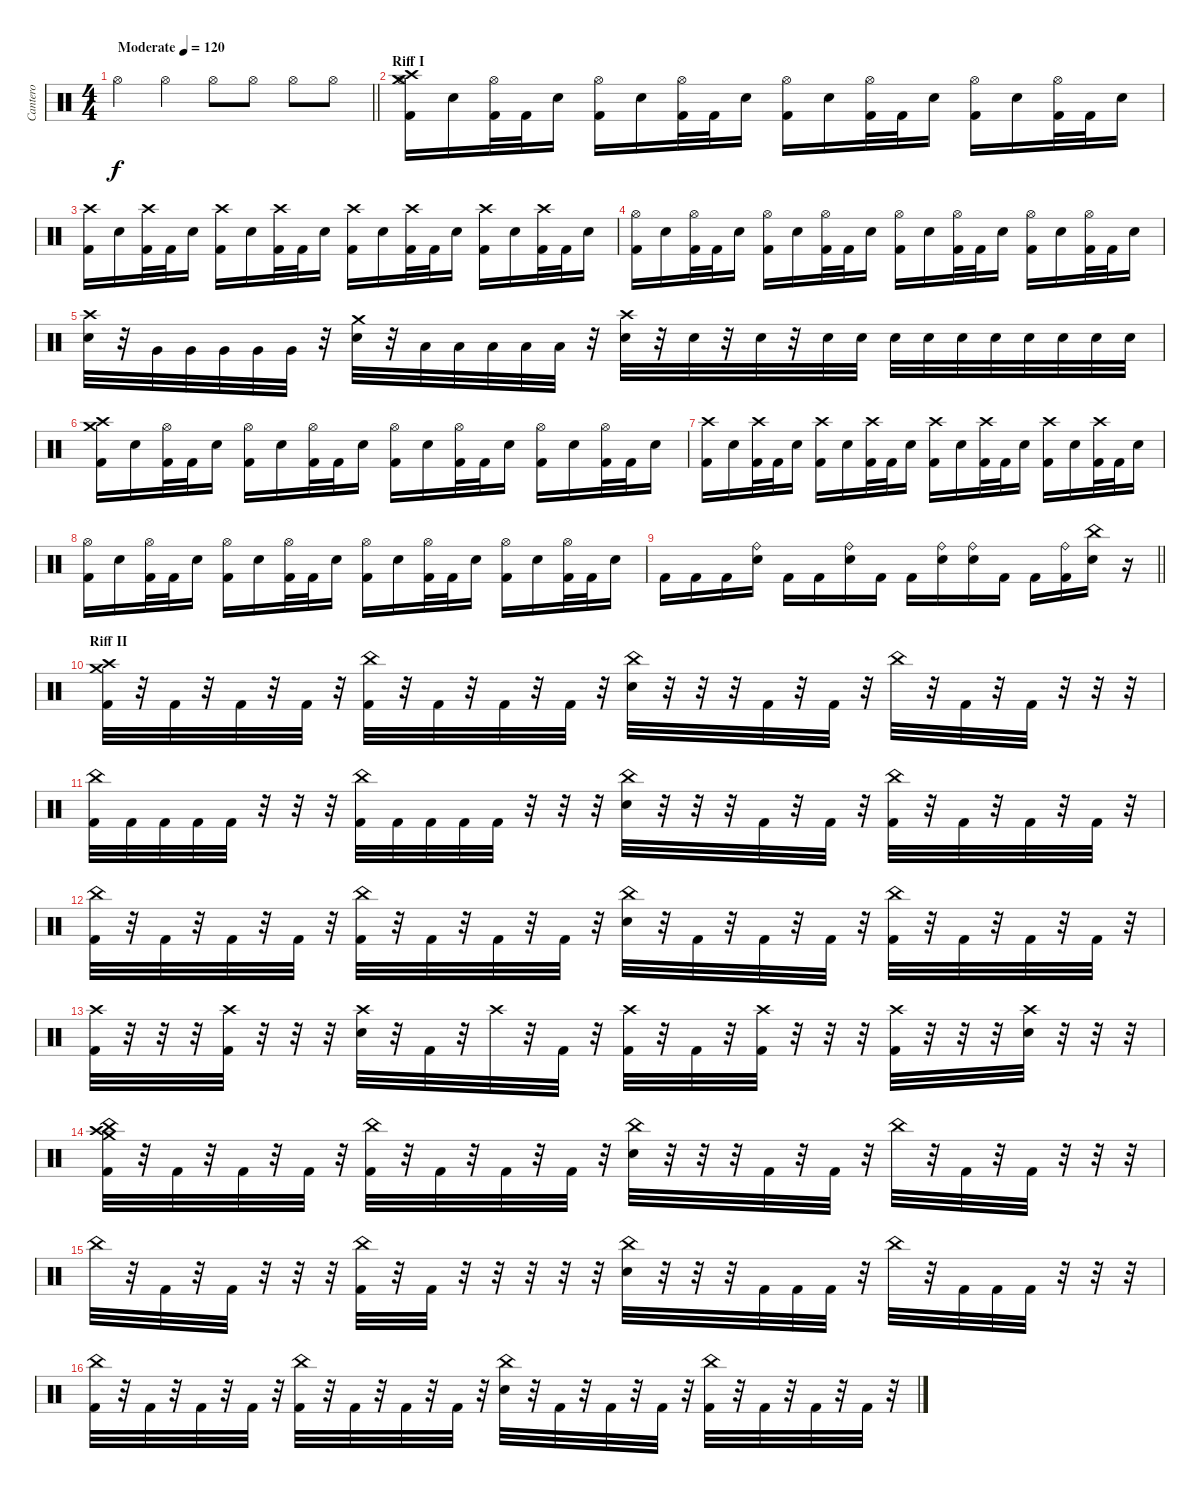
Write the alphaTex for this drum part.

\track ("Cantero" "Cantero") {instrument percussion}
\staff {score}
\articulation defaults
\ts (4 4)
\tempo (120 "Moderate")
\clef neutral
\barLineRight lightlight
\ks c "Hi-Hat (open)".4{dy f} "Hi-Hat (open)".4 "Hi-Hat (open)".8 "Hi-Hat (open)".8 "Hi-Hat (open)".8 "Hi-Hat (open)".8
|
\section ("" "Riff I")
("Kick (hit) 2" "Crash high (hit)" "Crash medium (hit)" "Hi-Hat (open)").16 "Electric Snare (hit)".16 ("Kick (hit) 2" "Hi-Hat (open)").32 "Kick (hit) 2".32 "Electric Snare (hit)".16 ("Kick (hit) 2" "Hi-Hat (open)").16 "Electric Snare (hit)".16 ("Kick (hit) 2" "Hi-Hat (open)").32 "Kick (hit) 2".32 "Electric Snare (hit)".16 ("Kick (hit) 2" "Hi-Hat (open)").16 "Electric Snare (hit)".16 ("Kick (hit) 2" "Hi-Hat (open)").32 "Kick (hit) 2".32 "Electric Snare (hit)".16 ("Kick (hit) 2" "Hi-Hat (open)").16 "Electric Snare (hit)".16 ("Kick (hit) 2" "Hi-Hat (open)").32 "Kick (hit) 2".32 "Electric Snare (hit)".16 |
("Kick (hit) 2" "Crash high (hit)").16 "Electric Snare (hit)".16 ("Kick (hit) 2" "Crash high (hit)").32 "Kick (hit) 2".32 "Electric Snare (hit)".16 ("Kick (hit) 2" "Crash high (hit)").16 "Electric Snare (hit)".16 ("Kick (hit) 2" "Crash high (hit)").32 "Kick (hit) 2".32 "Electric Snare (hit)".16 ("Kick (hit) 2" "Crash high (hit)").16 "Electric Snare (hit)".16 ("Kick (hit) 2" "Crash high (hit)").32 "Kick (hit) 2".32 "Electric Snare (hit)".16 ("Kick (hit) 2" "Crash high (hit)").16 "Electric Snare (hit)".16 ("Kick (hit) 2" "Crash high (hit)").32 "Kick (hit) 2".32 "Electric Snare (hit)".16 |
("Kick (hit) 2" "Hi-Hat (open)").16 "Electric Snare (hit)".16 ("Kick (hit) 2" "Hi-Hat (open)").32 "Kick (hit) 2".32 "Electric Snare (hit)".16 ("Kick (hit) 2" "Hi-Hat (open)").16 "Electric Snare (hit)".16 ("Kick (hit) 2" "Hi-Hat (open)").32 "Kick (hit) 2".32 "Electric Snare (hit)".16 ("Kick (hit) 2" "Hi-Hat (open)").16 "Electric Snare (hit)".16 ("Kick (hit) 2" "Hi-Hat (open)").32 "Kick (hit) 2".32 "Electric Snare (hit)".16 ("Kick (hit) 2" "Hi-Hat (open)").16 "Electric Snare (hit)".16 ("Kick (hit) 2" "Hi-Hat (open)").32 "Kick (hit) 2".32 "Electric Snare (hit)".16 |
("Crash high (hit)" "Electric Snare (hit)").32 r.32 "Very Low Tom (hit)".32 "Very Low Tom (hit)".32 "Very Low Tom (hit)".32 "Very Low Tom (hit)".32 "Very Low Tom (hit)".32 r.32 ("Crash medium (hit)" "Electric Snare (hit)").32 r.32 "Low Floor Tom (hit)".32 "Low Floor Tom (hit)".32 "Low Floor Tom (hit)".32 "Low Floor Tom (hit)".32 "Low Floor Tom (hit)".32 r.32 ("Crash high (hit)" "Electric Snare (hit)").32 r.32 "Electric Snare (hit)".32 r.32 "Electric Snare (hit)".32 r.32 "Electric Snare (hit)".32 "Electric Snare (hit)".32 "Electric Snare (hit)".32 "Electric Snare (hit)".32 "Electric Snare (hit)".32 "Electric Snare (hit)".32 "Electric Snare (hit)".32 "Electric Snare (hit)".32 "Electric Snare (hit)".32 "Electric Snare (hit)".32 |
("Kick (hit) 2" "Crash high (hit)" "Crash medium (hit)").16 "Electric Snare (hit)".16 ("Kick (hit) 2" "Hi-Hat (open)").32 "Kick (hit) 2".32 "Electric Snare (hit)".16 ("Kick (hit) 2" "Hi-Hat (open)").16 "Electric Snare (hit)".16 ("Kick (hit) 2" "Hi-Hat (open)").32 "Kick (hit) 2".32 "Electric Snare (hit)".16 ("Kick (hit) 2" "Hi-Hat (open)").16 "Electric Snare (hit)".16 ("Kick (hit) 2" "Hi-Hat (open)").32 "Kick (hit) 2".32 "Electric Snare (hit)".16 ("Kick (hit) 2" "Hi-Hat (open)").16 "Electric Snare (hit)".16 ("Kick (hit) 2" "Hi-Hat (open)").32 "Kick (hit) 2".32 "Electric Snare (hit)".16 |
("Kick (hit) 2" "Crash high (hit)").16 "Electric Snare (hit)".16 ("Kick (hit) 2" "Crash high (hit)").32 "Kick (hit) 2".32 "Electric Snare (hit)".16 ("Kick (hit) 2" "Crash high (hit)").16 "Electric Snare (hit)".16 ("Kick (hit) 2" "Crash high (hit)").32 "Kick (hit) 2".32 "Electric Snare (hit)".16 ("Kick (hit) 2" "Crash high (hit)").16 "Electric Snare (hit)".16 ("Kick (hit) 2" "Crash high (hit)").32 "Kick (hit) 2".32 "Electric Snare (hit)".16 ("Kick (hit) 2" "Crash high (hit)").16 "Electric Snare (hit)".16 ("Kick (hit) 2" "Crash high (hit)").32 "Kick (hit) 2".32 "Electric Snare (hit)".16 |
("Kick (hit) 2" "Hi-Hat (open)").16 "Electric Snare (hit)".16 ("Kick (hit) 2" "Hi-Hat (open)").32 "Kick (hit) 2".32 "Electric Snare (hit)".16 ("Kick (hit) 2" "Hi-Hat (open)").16 "Electric Snare (hit)".16 ("Kick (hit) 2" "Hi-Hat (open)").32 "Kick (hit) 2".32 "Electric Snare (hit)".16 ("Kick (hit) 2" "Hi-Hat (open)").16 "Electric Snare (hit)".16 ("Kick (hit) 2" "Hi-Hat (open)").32 "Kick (hit) 2".32 "Electric Snare (hit)".16 ("Kick (hit) 2" "Hi-Hat (open)").16 "Electric Snare (hit)".16 ("Kick (hit) 2" "Hi-Hat (open)").32 "Kick (hit) 2".32 "Electric Snare (hit)".16 |
\barLineRight lightlight "Kick (hit) 2".16 "Kick (hit) 2".16 "Kick (hit) 2".16
("Electric Snare (hit)" "Ride (bell)").16 "Kick (hit) 2".16 "Kick (hit) 2".16 ("Electric Snare (hit)" "Ride (bell)").16 "Kick (hit) 2".16 "Kick (hit) 2".16 ("Electric Snare (hit)" "Ride (bell)").16 ("Electric Snare (hit)" "Ride (bell)").16 "Kick (hit) 2".16 "Kick (hit) 2".16 ("Kick (hit) 2" "Ride (bell)").16 ("Electric Snare (hit)" "China (hit)").16 r.16 |
\section ("" "Riff II")
("Kick (hit) 2" "Crash high (hit)" "Crash medium (hit)").32 r.32 "Kick (hit) 2".32 r.32 "Kick (hit) 2".32 r.32 "Kick (hit) 2".32 r.32 ("China (hit)" "Kick (hit) 2").32 r.32 "Kick (hit) 2".32 r.32 "Kick (hit) 2".32 r.32 "Kick (hit) 2".32 r.32 ("China (hit)" "Electric Snare (hit)").32 r.32 r.32 r.32 "Kick (hit) 2".32 r.32 "Kick (hit) 2".32 r.32 "China (hit)".32 r.32 "Kick (hit) 2".32 r.32 "Kick (hit) 2".32 r.32 r.32 r.32 |
("China (hit)" "Kick (hit) 2").32 "Kick (hit) 2".32 "Kick (hit) 2".32 "Kick (hit) 2".32 "Kick (hit) 2".32 r.32 r.32 r.32 ("China (hit)" "Kick (hit) 2").32 "Kick (hit) 2".32 "Kick (hit) 2".32 "Kick (hit) 2".32 "Kick (hit) 2".32 r.32 r.32 r.32 ("China (hit)" "Electric Snare (hit)").32 r.32 r.32 r.32 "Kick (hit) 2".32 r.32 "Kick (hit) 2".32 r.32 ("China (hit)" "Kick (hit) 2").32 r.32 "Kick (hit) 2".32 r.32 "Kick (hit) 2".32 r.32 "Kick (hit) 2".32 r.32 |
("China (hit)" "Kick (hit) 2").32 r.32 "Kick (hit) 2".32 r.32 "Kick (hit) 2".32 r.32 "Kick (hit) 2".32 r.32 ("China (hit)" "Kick (hit) 2").32 r.32 "Kick (hit) 2".32 r.32 "Kick (hit) 2".32 r.32 "Kick (hit) 2".32 r.32 ("China (hit)" "Electric Snare (hit)").32 r.32 "Kick (hit) 2".32 r.32 "Kick (hit) 2".32 r.32 "Kick (hit) 2".32 r.32 ("China (hit)" "Kick (hit) 2").32 r.32 "Kick (hit) 2".32 r.32 "Kick (hit) 2".32 r.32 "Kick (hit) 2".32 r.32 |
("Crash high (hit)" "Kick (hit) 2").32 r.32 r.32 r.32 ("Crash high (hit)" "Kick (hit) 2").32 r.32 r.32 r.32 ("Crash high (hit)" "Electric Snare (hit)").32 r.32 "Kick (hit) 2".32 r.32 "Crash high (hit)".32 r.32 "Kick (hit) 2".32 r.32 ("Crash high (hit)" "Kick (hit) 2").32 r.32 "Kick (hit) 2".32 r.32 ("Crash high (hit)" "Kick (hit) 2").32 r.32 r.32 r.32 ("Crash high (hit)" "Kick (hit) 2").32 r.32 r.32 r.32 ("Crash high (hit)" "Electric Snare (hit)").32 r.32 r.32 r.32 |
("China (hit)" "Kick (hit) 2" "Crash medium (hit)" "Crash high (hit)").32 r.32 "Kick (hit) 2".32 r.32 "Kick (hit) 2".32 r.32 "Kick (hit) 2".32 r.32 ("China (hit)" "Kick (hit) 2").32 r.32 "Kick (hit) 2".32 r.32 "Kick (hit) 2".32 r.32 "Kick (hit) 2".32 r.32 ("China (hit)" "Electric Snare (hit)").32 r.32 r.32 r.32 "Kick (hit) 2".32 r.32 "Kick (hit) 2".32 r.32 "China (hit)".32 r.32 "Kick (hit) 2".32 r.32 "Kick (hit) 2".32 r.32 r.32 r.32 |
"China (hit)".32 r.32 "Kick (hit) 2".32 r.32 "Kick (hit) 2".32 r.32 r.32 r.32 ("China (hit)" "Kick (hit) 2").32 r.32 "Kick (hit) 2".32 r.32 r.32 r.32 r.32 r.32 ("China (hit)" "Electric Snare (hit)").32 r.32 r.32 r.32 "Kick (hit) 2".32 "Kick (hit) 2".32 "Kick (hit) 2".32 r.32 "China (hit)".32 r.32 "Kick (hit) 2".32 "Kick (hit) 2".32 "Kick (hit) 2".32 r.32 r.32 r.32 |
("China (hit)" "Kick (hit) 2").32 r.32 "Kick (hit) 2".32 r.32 "Kick (hit) 2".32 r.32 "Kick (hit) 2".32 r.32 ("China (hit)" "Kick (hit) 2").32 r.32 "Kick (hit) 2".32 r.32 "Kick (hit) 2".32 r.32 "Kick (hit) 2".32 r.32 ("China (hit)" "Electric Snare (hit)").32 r.32 "Kick (hit) 2".32 r.32 "Kick (hit) 2".32 r.32 "Kick (hit) 2".32 r.32 ("China (hit)" "Kick (hit) 2").32 r.32 "Kick (hit) 2".32 r.32 "Kick (hit) 2".32 r.32 "Kick (hit) 2".32 r.32
